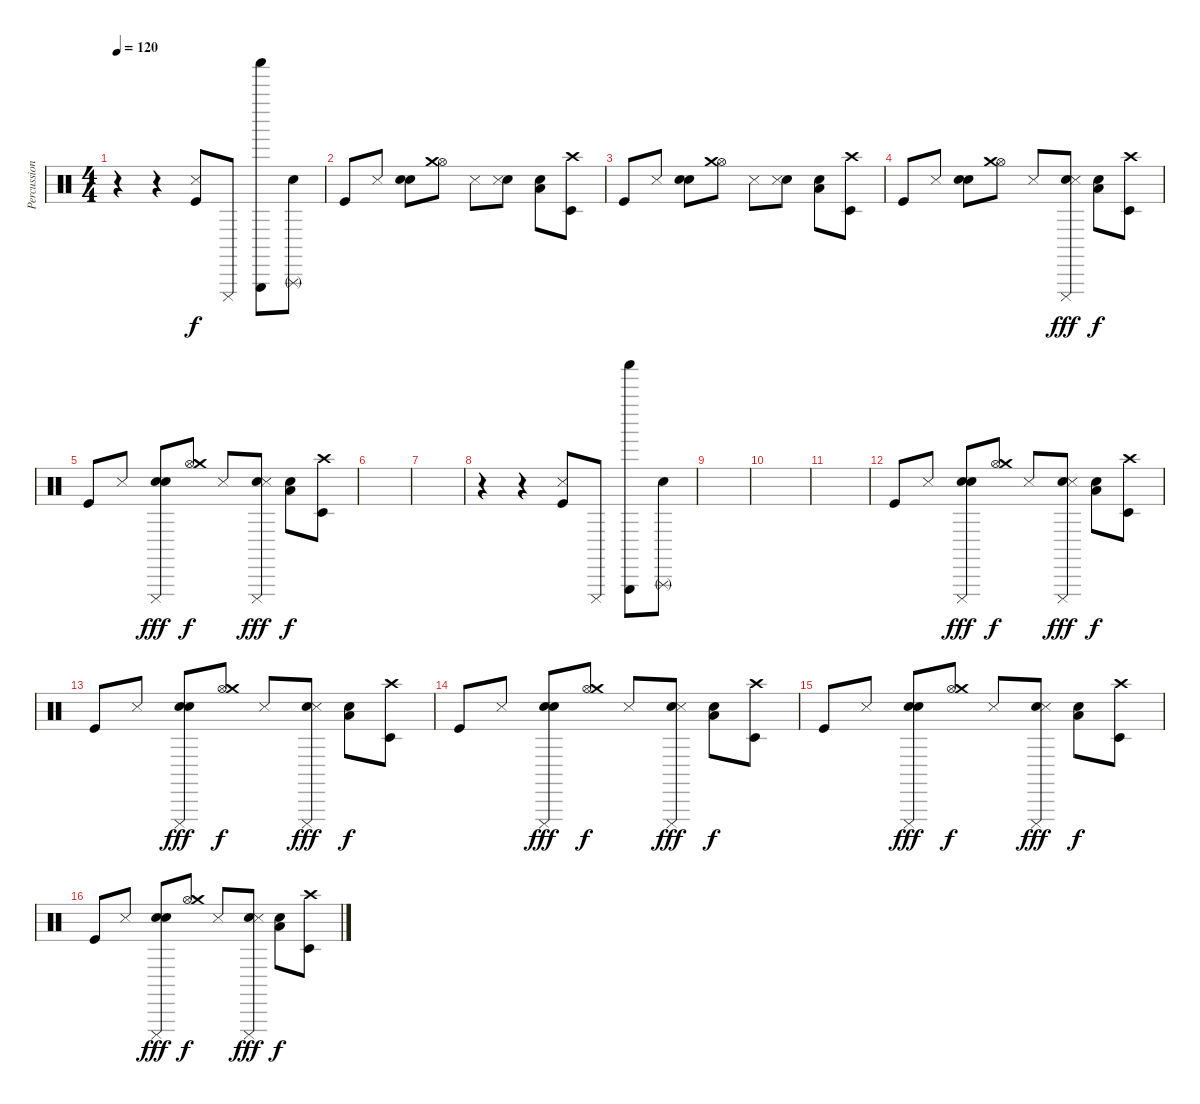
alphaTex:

\track ("Percussion" "Percussion") {instrument percussion}
\staff {score}
\articulation defaults
\ts (4 4)
\tempo 120
\clef neutral
\ks c
r.4{dy f} r.4 ("Kick (hit)" "Snare (side stick) 3").8 "Cuica (mute)".8 ("Triangle (hit)" "Shaker (hit)").8 ("Metronome (bell)" "Triangle (rnute)").8 |
"Kick (hit)".8 "Snare (side stick) 3".8 ("Hand Clap (hit)" "Electric Snare (hit)").8 ("Hi-Hat (open)" "Crash medium (hit)").8 "Metronome (hit)".8 ("Metronome (bell)" "Metronome (hit)").8 ("Low Floor Tom (hit)" "Electric Snare (hit)").8 ("Crash high (hit)" "Timbale low (hit)").8 |
"Kick (hit)".8 "Snare (side stick) 3".8 ("Hand Clap (hit)" "Electric Snare (hit)").8 ("Hi-Hat (open)" "Crash medium (hit)").8 "Metronome (hit)".8 ("Metronome (bell)" "Metronome (hit)").8 ("Low Floor Tom (hit)" "Electric Snare (hit)").8 ("Crash high (hit)" "Timbale low (hit)").8 |
"Kick (hit)".8 "Snare (side stick) 3".8 ("Hand Clap (hit)" "Electric Snare (hit)").8 ("Hi-Hat (open)" "Crash medium (hit)").8 "Metronome (hit)".8 ("Metronome (bell)" "Metronome (hit)" "Cuica (mute)").8{dy fff} ("Low Floor Tom (hit)" "Electric Snare (hit)").8{dy f} ("Crash high (hit)" "Timbale low (hit)").8 |
"Kick (hit)".8 "Snare (side stick) 3".8 ("Hand Clap (hit)" "Electric Snare (hit)" "Cuica (mute)").8{dy fff} ("Hi-Hat (open)" "Crash medium (hit)").8{dy f} "Metronome (hit)".8 ("Metronome (bell)" "Metronome (hit)" "Cuica (mute)").8{dy fff} ("Low Floor Tom (hit)" "Electric Snare (hit)").8{dy f} ("Crash high (hit)" "Timbale low (hit)").8 |
|
|
r.4 r.4 ("Kick (hit)" "Snare (side stick) 3").8 "Cuica (mute)".8 ("Triangle (hit)" "Shaker (hit)").8 ("Metronome (bell)" "Triangle (rnute)").8 |
|
|
|
"Kick (hit)".8 "Snare (side stick) 3".8 ("Hand Clap (hit)" "Electric Snare (hit)" "Cuica (mute)").8{dy fff} ("Hi-Hat (open)" "Crash medium (hit)").8{dy f} "Metronome (hit)".8 ("Metronome (bell)" "Metronome (hit)" "Cuica (mute)").8{dy fff} ("Low Floor Tom (hit)" "Electric Snare (hit)").8{dy f} ("Crash high (hit)" "Timbale low (hit)").8 |
"Kick (hit)".8 "Snare (side stick) 3".8 ("Hand Clap (hit)" "Electric Snare (hit)" "Cuica (mute)").8{dy fff} ("Hi-Hat (open)" "Crash medium (hit)").8{dy f} "Metronome (hit)".8 ("Metronome (bell)" "Metronome (hit)" "Cuica (mute)").8{dy fff} ("Low Floor Tom (hit)" "Electric Snare (hit)").8{dy f} ("Crash high (hit)" "Timbale low (hit)").8 |
"Kick (hit)".8 "Snare (side stick) 3".8 ("Hand Clap (hit)" "Electric Snare (hit)" "Cuica (mute)").8{dy fff} ("Hi-Hat (open)" "Crash medium (hit)").8{dy f} "Metronome (hit)".8 ("Metronome (bell)" "Metronome (hit)" "Cuica (mute)").8{dy fff} ("Low Floor Tom (hit)" "Electric Snare (hit)").8{dy f} ("Crash high (hit)" "Timbale low (hit)").8 |
"Kick (hit)".8 "Snare (side stick) 3".8 ("Hand Clap (hit)" "Electric Snare (hit)" "Cuica (mute)").8{dy fff} ("Hi-Hat (open)" "Crash medium (hit)").8{dy f} "Metronome (hit)".8 ("Metronome (bell)" "Metronome (hit)" "Cuica (mute)").8{dy fff} ("Low Floor Tom (hit)" "Electric Snare (hit)").8{dy f} ("Crash high (hit)" "Timbale low (hit)").8 |
"Kick (hit)".8 "Snare (side stick) 3".8 ("Hand Clap (hit)" "Electric Snare (hit)" "Cuica (mute)").8{dy fff} ("Hi-Hat (open)" "Crash medium (hit)").8{dy f} "Metronome (hit)".8 ("Metronome (bell)" "Metronome (hit)" "Cuica (mute)").8{dy fff} ("Low Floor Tom (hit)" "Electric Snare (hit)").8{dy f} ("Crash high (hit)" "Timbale low (hit)").8
